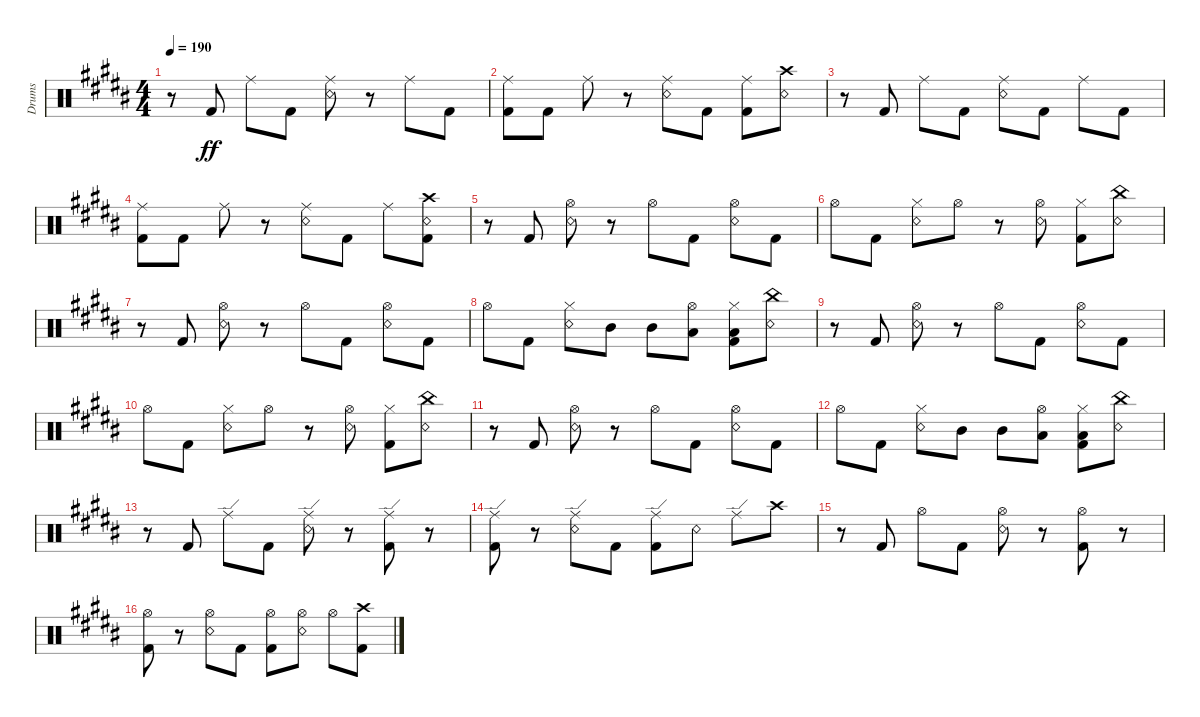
\bracketExtendMode groupsimilarinstruments
\otherSystemsTrackNameOrientation horizontal
\track ("Drumkit" "Drums") {instrument percussion}
\staff {score}
\articulation defaults
\ts (4 4)
\tempo 190
\clef neutral
\ks b
r.8{dy ff} "Kick (hit) 2"{acc forcenatural}.8 "Ride (middle)"{acc forcenatural}.8 "Kick (hit) 2"{acc forcenatural}.8 ("Snare (rim shot)"{acc forcenatural} "Ride (middle)"{acc forcenatural}).8 r.8 "Ride (middle)"{acc forcenatural}.8 "Kick (hit) 2"{acc forcenatural}.8 |
("Kick (hit) 2"{acc forcenatural} "Ride (middle)"{acc forcenatural}).8 "Kick (hit) 2"{acc forcenatural}.8 "Ride (middle)"{acc forcenatural}.8 r.8 ("Snare (rim shot)"{acc forcenatural} "Ride (middle)"{acc forcenatural}).8 "Kick (hit) 2"{acc forcenatural}.8 ("Kick (hit) 2"{acc forcenatural} "Ride (middle)"{acc forcenatural}).8 ("Crash high (hit)"{acc forcenatural} "Snare (rim shot)"{acc forcenatural}).8 |
r.8 "Kick (hit) 2"{acc forcenatural}.8 "Ride (middle)"{acc forcenatural}.8 "Kick (hit) 2"{acc forcenatural}.8 ("Snare (rim shot)"{acc forcenatural} "Ride (middle)"{acc forcenatural}).8 "Kick (hit) 2"{acc forcenatural}.8 "Ride (middle)"{acc forcenatural}.8 "Kick (hit) 2"{acc forcenatural}.8 |
("Kick (hit) 2"{acc forcenatural} "Ride (middle)"{acc forcenatural}).8 "Kick (hit) 2"{acc forcenatural}.8 "Ride (middle)"{acc forcenatural}.8 r.8 ("Snare (rim shot)"{acc forcenatural} "Ride (middle)"{acc forcenatural}).8 "Kick (hit) 2"{acc forcenatural}.8 "Ride (middle)"{acc forcenatural}.8 ("Kick (hit) 2"{acc forcenatural} "Crash high (hit)"{acc forcenatural} "Snare (rim shot)"{acc forcenatural}).8 |
r.8 "Kick (hit) 2"{acc forcenatural}.8 ("Snare (rim shot)"{acc forcenatural} "Hi-Hat (open)"{acc forcenatural}).8 r.8 "Hi-Hat (open)"{acc forcenatural}.8 "Kick (hit) 2"{acc forcenatural}.8 ("Snare (rim shot)"{acc forcenatural} "Hi-Hat (open)"{acc forcenatural}).8 "Kick (hit) 2"{acc forcenatural}.8 |
"Hi-Hat (open)"{acc forcenatural}.8 "Kick (hit) 2"{acc forcenatural}.8 ("Snare (rim shot)"{acc forcenatural} "Hi-Hat (closed)"{acc forcenatural}).8 "Hi-Hat (open)"{acc forcenatural}.8 r.8 ("Hi-Hat (open)"{acc forcenatural} "Snare (rim shot)"{acc forcenatural}).8 ("Hi-Hat (closed)"{acc forcenatural} "Kick (hit) 2"{acc forcenatural}).8 ("Snare (rim shot)"{acc forcenatural} "China (hit)"{acc forcenatural}).8 |
r.8 "Kick (hit) 2"{acc forcenatural}.8 ("Snare (rim shot)"{acc forcenatural} "Hi-Hat (open)"{acc forcenatural}).8 r.8 "Hi-Hat (open)"{acc forcenatural}.8 "Kick (hit) 2"{acc forcenatural}.8 ("Snare (rim shot)"{acc forcenatural} "Hi-Hat (open)"{acc forcenatural}).8 "Kick (hit) 2"{acc forcenatural}.8 |
"Hi-Hat (open)"{acc forcenatural}.8 "Kick (hit) 2"{acc forcenatural}.8 ("Snare (rim shot)"{acc forcenatural} "Hi-Hat (closed)"{acc forcenatural}).8 "Mid Tom (hit)"{acc forcenatural}.8 "Mid Tom (hit)"{acc forcenatural}.8 ("Hi-Hat (open)"{acc forcenatural} "Low Tom (hit)"{acc forcenatural}).8 ("Hi-Hat (closed)"{acc forcenatural} "Kick (hit) 2"{acc forcenatural} "Low Tom (hit)"{acc forcenatural}).8 ("Snare (rim shot)"{acc forcenatural} "China (hit)"{acc forcenatural}).8 |
r.8 "Kick (hit) 2"{acc forcenatural}.8 ("Snare (rim shot)"{acc forcenatural} "Hi-Hat (open)"{acc forcenatural}).8 r.8 "Hi-Hat (open)"{acc forcenatural}.8 "Kick (hit) 2"{acc forcenatural}.8 ("Snare (rim shot)"{acc forcenatural} "Hi-Hat (open)"{acc forcenatural}).8 "Kick (hit) 2"{acc forcenatural}.8 |
"Hi-Hat (open)"{acc forcenatural}.8 "Kick (hit) 2"{acc forcenatural}.8 ("Snare (rim shot)"{acc forcenatural} "Hi-Hat (closed)"{acc forcenatural}).8 "Hi-Hat (open)"{acc forcenatural}.8 r.8 ("Hi-Hat (open)"{acc forcenatural} "Snare (rim shot)"{acc forcenatural}).8 ("Hi-Hat (closed)"{acc forcenatural} "Kick (hit) 2"{acc forcenatural}).8 ("Snare (rim shot)"{acc forcenatural} "China (hit)"{acc forcenatural}).8 |
r.8 "Kick (hit) 2"{acc forcenatural}.8 ("Snare (rim shot)"{acc forcenatural} "Hi-Hat (open)"{acc forcenatural}).8 r.8 "Hi-Hat (open)"{acc forcenatural}.8 "Kick (hit) 2"{acc forcenatural}.8 ("Snare (rim shot)"{acc forcenatural} "Hi-Hat (open)"{acc forcenatural}).8 "Kick (hit) 2"{acc forcenatural}.8 |
"Hi-Hat (open)"{acc forcenatural}.8 "Kick (hit) 2"{acc forcenatural}.8 ("Snare (rim shot)"{acc forcenatural} "Hi-Hat (closed)"{acc forcenatural}).8 "Mid Tom (hit)"{acc forcenatural}.8 "Mid Tom (hit)"{acc forcenatural}.8 ("Hi-Hat (open)"{acc forcenatural} "Low Tom (hit)"{acc forcenatural}).8 ("Hi-Hat (closed)"{acc forcenatural} "Kick (hit) 2"{acc forcenatural} "Low Tom (hit)"{acc forcenatural}).8 ("Snare (rim shot)"{acc forcenatural} "China (hit)"{acc forcenatural}).8 |
r.8 "Kick (hit) 2"{acc forcenatural}.8 "Ride (edge)"{acc forcenatural}.8 "Kick (hit) 2"{acc forcenatural}.8 ("Snare (rim shot)"{acc forcenatural} "Ride (edge)"{acc forcenatural}).8 r.8 ("Kick (hit) 2"{acc forcenatural} "Ride (edge)"{acc forcenatural}).8 r.8 |
("Kick (hit) 2"{acc forcenatural} "Ride (edge)"{acc forcenatural}).8 r.8 ("Snare (rim shot)"{acc forcenatural} "Ride (edge)"{acc forcenatural}).8 "Kick (hit) 2"{acc forcenatural}.8 ("Kick (hit) 2"{acc forcenatural} "Ride (edge)"{acc forcenatural}).8 "Snare (rim shot)"{acc forcenatural}.8 "Ride (edge)"{acc forcenatural}.8 "Crash high (hit)"{acc forcenatural}.8 |
r.8 "Kick (hit) 2"{acc forcenatural}.8 "Hi-Hat (open)"{acc forcenatural}.8 "Kick (hit) 2"{acc forcenatural}.8 ("Snare (rim shot)"{acc forcenatural} "Hi-Hat (open)"{acc forcenatural}).8 r.8 ("Kick (hit) 2"{acc forcenatural} "Hi-Hat (open)"{acc forcenatural}).8 r.8 |
("Kick (hit) 2"{acc forcenatural} "Hi-Hat (open)"{acc forcenatural}).8 r.8 ("Snare (rim shot)"{acc forcenatural} "Hi-Hat (open)"{acc forcenatural}).8 "Kick (hit) 2"{acc forcenatural}.8 ("Kick (hit) 2"{acc forcenatural} "Hi-Hat (open)"{acc forcenatural}).8 ("Snare (rim shot)"{acc forcenatural} "Hi-Hat (open)"{acc forcenatural}).8 "Hi-Hat (open)"{acc forcenatural}.8 ("Crash high (hit)"{acc forcenatural} "Kick (hit) 2"{acc forcenatural}).8
